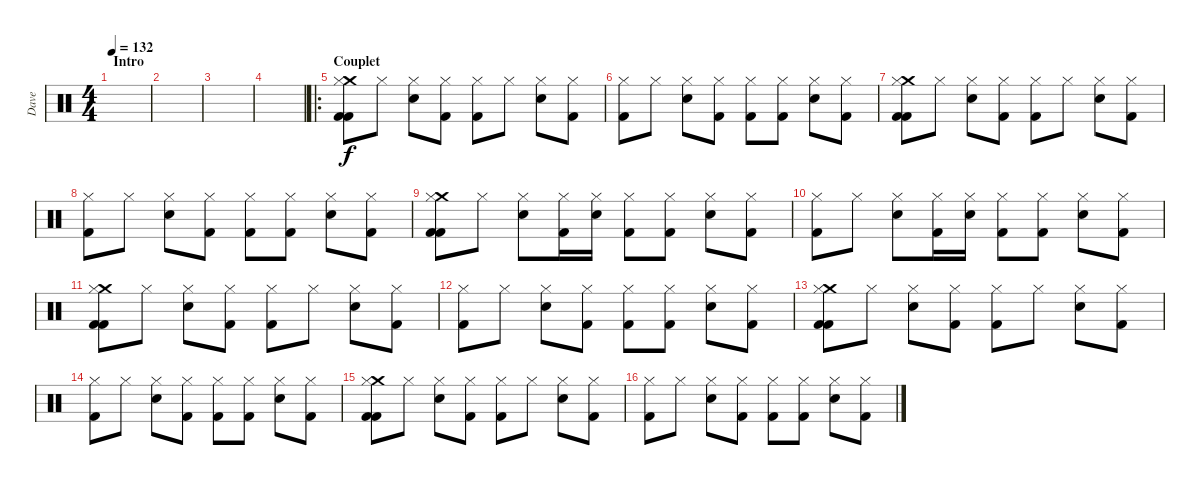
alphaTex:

\track ("Dave" "Dave") {instrument percussion}
\staff {score}
\articulation defaults
\ts (4 4)
\section ("" "Intro")
\tempo 132
\clef neutral
\ks c
|
|
|
|
\ro
\section ("" "Couplet")
("Crash medium (hit)" "Hi-Hat (closed)" "Kick (hit) 2" "Kick (hit) 2").8 "Hi-Hat (closed)".8 ("Hi-Hat (closed)" "Electric Snare (hit)").8 ("Hi-Hat (closed)" "Kick (hit) 2").8 ("Hi-Hat (closed)" "Kick (hit) 2").8 "Hi-Hat (closed)".8 ("Hi-Hat (closed)" "Electric Snare (hit)").8 ("Hi-Hat (closed)" "Kick (hit) 2").8 |
("Hi-Hat (closed)" "Kick (hit) 2").8 "Hi-Hat (closed)".8 ("Hi-Hat (closed)" "Electric Snare (hit)").8 ("Hi-Hat (closed)" "Kick (hit) 2").8 ("Hi-Hat (closed)" "Kick (hit) 2").8 ("Hi-Hat (closed)" "Kick (hit) 2").8 ("Hi-Hat (closed)" "Electric Snare (hit)").8 ("Hi-Hat (closed)" "Kick (hit) 2").8 |
("Crash medium (hit)" "Hi-Hat (closed)" "Kick (hit) 2" "Kick (hit) 2").8 "Hi-Hat (closed)".8 ("Hi-Hat (closed)" "Electric Snare (hit)").8 ("Hi-Hat (closed)" "Kick (hit) 2").8 ("Hi-Hat (closed)" "Kick (hit) 2").8 "Hi-Hat (closed)".8 ("Hi-Hat (closed)" "Electric Snare (hit)").8 ("Hi-Hat (closed)" "Kick (hit) 2").8 |
("Hi-Hat (closed)" "Kick (hit) 2").8 "Hi-Hat (closed)".8 ("Hi-Hat (closed)" "Electric Snare (hit)").8 ("Hi-Hat (closed)" "Kick (hit) 2").8 ("Hi-Hat (closed)" "Kick (hit) 2").8 ("Hi-Hat (closed)" "Kick (hit) 2").8 ("Hi-Hat (closed)" "Electric Snare (hit)").8 ("Hi-Hat (closed)" "Kick (hit) 2").8 |
("Crash medium (hit)" "Hi-Hat (closed)" "Kick (hit) 2" "Kick (hit) 2").8 "Hi-Hat (closed)".8 ("Hi-Hat (closed)" "Electric Snare (hit)").8 ("Hi-Hat (closed)" "Kick (hit) 2").16 ("Hi-Hat (closed)" "Electric Snare (hit)").16 ("Hi-Hat (closed)" "Kick (hit) 2").8 ("Hi-Hat (closed)" "Kick (hit) 2").8 ("Hi-Hat (closed)" "Electric Snare (hit)").8 ("Hi-Hat (closed)" "Kick (hit) 2").8 |
("Hi-Hat (closed)" "Kick (hit) 2").8 "Hi-Hat (closed)".8 ("Hi-Hat (closed)" "Electric Snare (hit)").8 ("Hi-Hat (closed)" "Kick (hit) 2").16 ("Hi-Hat (closed)" "Electric Snare (hit)").16 ("Hi-Hat (closed)" "Kick (hit) 2").8 ("Hi-Hat (closed)" "Kick (hit) 2").8 ("Hi-Hat (closed)" "Electric Snare (hit)").8 ("Hi-Hat (closed)" "Kick (hit) 2").8 |
("Crash medium (hit)" "Hi-Hat (closed)" "Kick (hit) 2" "Kick (hit) 2").8 "Hi-Hat (closed)".8 ("Hi-Hat (closed)" "Electric Snare (hit)").8 ("Hi-Hat (closed)" "Kick (hit) 2").8 ("Hi-Hat (closed)" "Kick (hit) 2").8 "Hi-Hat (closed)".8 ("Hi-Hat (closed)" "Electric Snare (hit)").8 ("Hi-Hat (closed)" "Kick (hit) 2").8 |
("Hi-Hat (closed)" "Kick (hit) 2").8 "Hi-Hat (closed)".8 ("Hi-Hat (closed)" "Electric Snare (hit)").8 ("Hi-Hat (closed)" "Kick (hit) 2").8 ("Hi-Hat (closed)" "Kick (hit) 2").8 ("Hi-Hat (closed)" "Kick (hit) 2").8 ("Hi-Hat (closed)" "Electric Snare (hit)").8 ("Hi-Hat (closed)" "Kick (hit) 2").8 |
("Crash medium (hit)" "Hi-Hat (closed)" "Kick (hit) 2" "Kick (hit) 2").8 "Hi-Hat (closed)".8 ("Hi-Hat (closed)" "Electric Snare (hit)").8 ("Hi-Hat (closed)" "Kick (hit) 2").8 ("Hi-Hat (closed)" "Kick (hit) 2").8 "Hi-Hat (closed)".8 ("Hi-Hat (closed)" "Electric Snare (hit)").8 ("Hi-Hat (closed)" "Kick (hit) 2").8 |
("Hi-Hat (closed)" "Kick (hit) 2").8 "Hi-Hat (closed)".8 ("Hi-Hat (closed)" "Electric Snare (hit)").8 ("Hi-Hat (closed)" "Kick (hit) 2").8 ("Hi-Hat (closed)" "Kick (hit) 2").8 ("Hi-Hat (closed)" "Kick (hit) 2").8 ("Hi-Hat (closed)" "Electric Snare (hit)").8 ("Hi-Hat (closed)" "Kick (hit) 2").8 |
("Crash medium (hit)" "Hi-Hat (closed)" "Kick (hit) 2" "Kick (hit) 2").8 "Hi-Hat (closed)".8 ("Hi-Hat (closed)" "Electric Snare (hit)").8 ("Hi-Hat (closed)" "Kick (hit) 2").8 ("Hi-Hat (closed)" "Kick (hit) 2").8 "Hi-Hat (closed)".8 ("Hi-Hat (closed)" "Electric Snare (hit)").8 ("Hi-Hat (closed)" "Kick (hit) 2").8 |
("Hi-Hat (closed)" "Kick (hit) 2").8 "Hi-Hat (closed)".8 ("Hi-Hat (closed)" "Electric Snare (hit)").8 ("Hi-Hat (closed)" "Kick (hit) 2").8 ("Hi-Hat (closed)" "Kick (hit) 2").8 ("Hi-Hat (closed)" "Kick (hit) 2").8 ("Hi-Hat (closed)" "Electric Snare (hit)").8 ("Hi-Hat (closed)" "Kick (hit) 2").8
